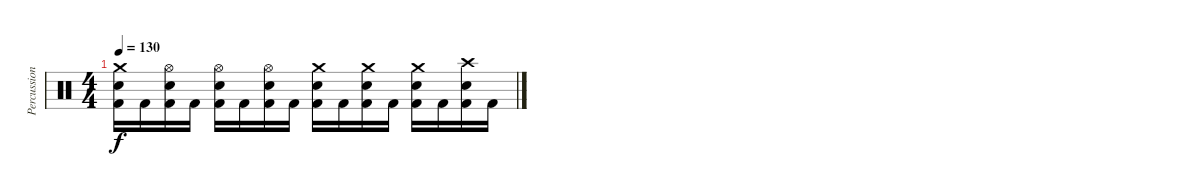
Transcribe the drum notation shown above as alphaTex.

\track ("Percussion" "Percussion") {instrument percussion}
\staff {score}
\articulation defaults
\ts (4 4)
\tempo 130
\clef neutral
\ks c
("Crash medium (hit)" "Electric Snare (hit)" "Kick (hit) 2").16{dy f} "Kick (hit) 2".16 ("Hi-Hat (open)" "Electric Snare (hit)" "Kick (hit) 2").16 "Kick (hit) 2".16 ("Hi-Hat (open)" "Electric Snare (hit)" "Kick (hit) 2").16 "Kick (hit) 2".16 ("Hi-Hat (open)" "Electric Snare (hit)" "Kick (hit) 2").16 "Kick (hit) 2".16 ("Crash medium (hit)" "Electric Snare (hit)" "Kick (hit) 2").16 "Kick (hit) 2".16 ("Crash medium (hit)" "Electric Snare (hit)" "Kick (hit) 2").16 "Kick (hit) 2".16 ("Crash medium (hit)" "Electric Snare (hit)" "Kick (hit) 2").16 "Kick (hit) 2".16 ("Crash high (hit)" "Electric Snare (hit)" "Kick (hit) 2").16 "Kick (hit) 2".16
